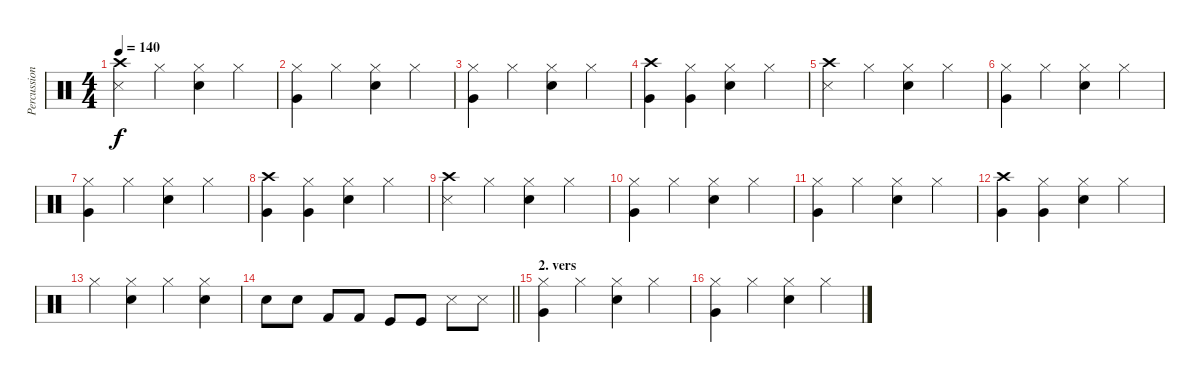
\track ("Percussion" "Percussion") {instrument percussion}
\staff {score}
\articulation defaults
\ts (4 4)
\tempo 140
\clef neutral
\ks c
("Crash high (hit)" "Metronome (hit)").4{dy f} "Hi-Hat (closed)".4 ("Hi-Hat (closed)" "Electric Snare (hit)").4 "Hi-Hat (closed)".4 |
("Hi-Hat (closed)" "Very Low Tom (hit)").4 "Hi-Hat (closed)".4 ("Hi-Hat (closed)" "Electric Snare (hit)").4 "Hi-Hat (closed)".4 |
("Hi-Hat (closed)" "Very Low Tom (hit)").4 "Hi-Hat (closed)".4 ("Hi-Hat (closed)" "Electric Snare (hit)").4 "Hi-Hat (closed)".4 |
("Crash high (hit)" "Very Low Tom (hit)").4 ("Hi-Hat (closed)" "Very Low Tom (hit)").4 ("Hi-Hat (closed)" "Electric Snare (hit)").4 "Hi-Hat (closed)".4 |
("Crash high (hit)" "Metronome (hit)").4 "Hi-Hat (closed)".4 ("Hi-Hat (closed)" "Electric Snare (hit)").4 "Hi-Hat (closed)".4 |
("Hi-Hat (closed)" "Very Low Tom (hit)").4 "Hi-Hat (closed)".4 ("Hi-Hat (closed)" "Electric Snare (hit)").4 "Hi-Hat (closed)".4 |
("Hi-Hat (closed)" "Very Low Tom (hit)").4 "Hi-Hat (closed)".4 ("Hi-Hat (closed)" "Electric Snare (hit)").4 "Hi-Hat (closed)".4 |
("Crash high (hit)" "Very Low Tom (hit)").4 ("Hi-Hat (closed)" "Very Low Tom (hit)").4 ("Hi-Hat (closed)" "Electric Snare (hit)").4 "Hi-Hat (closed)".4 |
("Crash high (hit)" "Metronome (hit)").4 "Hi-Hat (closed)".4 ("Hi-Hat (closed)" "Electric Snare (hit)").4 "Hi-Hat (closed)".4 |
("Hi-Hat (closed)" "Very Low Tom (hit)").4 "Hi-Hat (closed)".4 ("Hi-Hat (closed)" "Electric Snare (hit)").4 "Hi-Hat (closed)".4 |
("Hi-Hat (closed)" "Very Low Tom (hit)").4 "Hi-Hat (closed)".4 ("Hi-Hat (closed)" "Electric Snare (hit)").4 "Hi-Hat (closed)".4 |
("Crash high (hit)" "Very Low Tom (hit)").4 ("Hi-Hat (closed)" "Very Low Tom (hit)").4 ("Hi-Hat (closed)" "Electric Snare (hit)").4 "Hi-Hat (closed)".4 |
"Hi-Hat (closed)".4 ("Hi-Hat (closed)" "Electric Snare (hit)").4 "Hi-Hat (closed)".4 ("Hi-Hat (closed)" "Electric Snare (hit)").4 |
\barLineRight lightlight "Electric Snare (hit)".8 "Electric Snare (hit)".8 "Kick (hit) 2".8 "Kick (hit) 2".8 "Kick (hit)".8 "Kick (hit)".8 "Metronome (hit)".8 "Metronome (hit)".8
|
\section ("" "2. vers")
("Hi-Hat (closed)" "Very Low Tom (hit)").4 "Hi-Hat (closed)".4 ("Hi-Hat (closed)" "Electric Snare (hit)").4 "Hi-Hat (closed)".4 |
("Hi-Hat (closed)" "Very Low Tom (hit)").4 "Hi-Hat (closed)".4 ("Hi-Hat (closed)" "Electric Snare (hit)").4 "Hi-Hat (closed)".4
